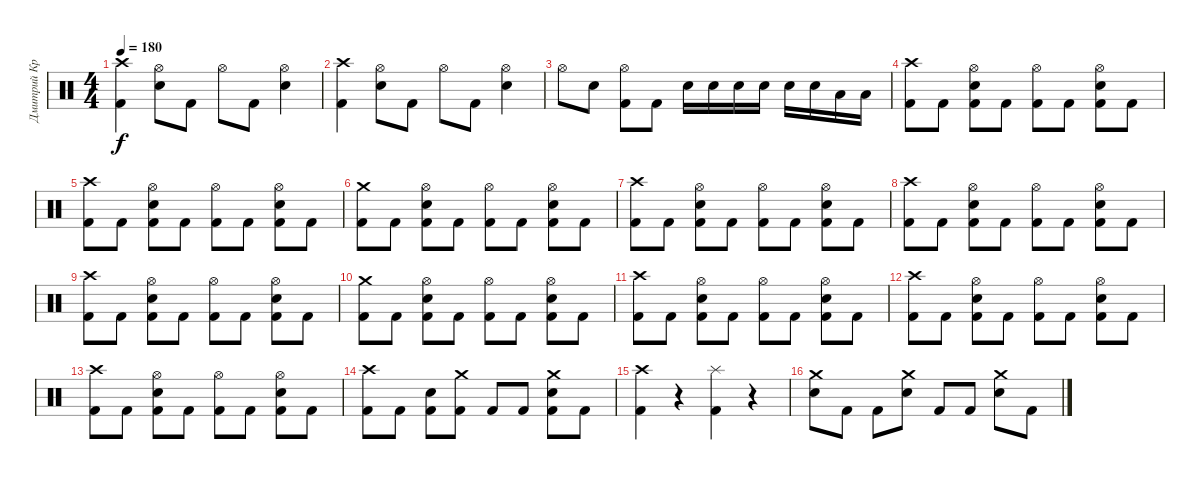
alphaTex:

\track ("Дмитрий Кривенков" "Дмитрий Кр") {instrument percussion}
\staff {score}
\articulation defaults
\ts (4 4)
\tempo 180
\clef neutral
\ks c
("Kick (hit) 2" "Crash high (hit)").4{dy f} ("Electric Snare (hit)" "Hi-Hat (open)").8 "Kick (hit) 2".8 "Hi-Hat (open)".8 "Kick (hit) 2".8 ("Electric Snare (hit)" "Hi-Hat (open)").4 |
("Kick (hit) 2" "Crash high (hit)").4 ("Electric Snare (hit)" "Hi-Hat (open)").8 "Kick (hit) 2".8 "Hi-Hat (open)".8 "Kick (hit) 2".8 ("Electric Snare (hit)" "Hi-Hat (open)").4 |
"Hi-Hat (open)".8 "Electric Snare (hit)".8 ("Hi-Hat (open)" "Kick (hit) 2").8 "Kick (hit) 2".8 "Snare (hit) 2".16 "Snare (hit) 2".16 "Snare (hit) 2".16 "Snare (hit) 2".16 "Snare (hit) 2".16 "Electric Snare (hit)".16 "Low Tom (hit)".16 "Low Tom (hit)".16 |
("Kick (hit) 2" "Crash high (hit)").8 "Kick (hit) 2".8 ("Hi-Hat (open)" "Electric Snare (hit)" "Kick (hit) 2").8 "Kick (hit) 2".8 ("Hi-Hat (open)" "Kick (hit) 2").8 "Kick (hit) 2".8 ("Kick (hit) 2" "Electric Snare (hit)" "Hi-Hat (open)").8 "Kick (hit) 2".8 |
("Kick (hit) 2" "Crash high (hit)").8 "Kick (hit) 2".8 ("Hi-Hat (open)" "Electric Snare (hit)" "Kick (hit) 2").8 "Kick (hit) 2".8 ("Hi-Hat (open)" "Kick (hit) 2").8 "Kick (hit) 2".8 ("Kick (hit) 2" "Electric Snare (hit)" "Hi-Hat (open)").8 "Kick (hit) 2".8 |
("Kick (hit) 2" "Crash medium (hit)").8 "Kick (hit) 2".8 ("Hi-Hat (open)" "Electric Snare (hit)" "Kick (hit) 2").8 "Kick (hit) 2".8 ("Hi-Hat (open)" "Kick (hit) 2").8 "Kick (hit) 2".8 ("Kick (hit) 2" "Electric Snare (hit)" "Hi-Hat (open)").8 "Kick (hit) 2".8 |
("Kick (hit) 2" "Crash high (hit)").8 "Kick (hit) 2".8 ("Hi-Hat (open)" "Electric Snare (hit)" "Kick (hit) 2").8 "Kick (hit) 2".8 ("Hi-Hat (open)" "Kick (hit) 2").8 "Kick (hit) 2".8 ("Kick (hit) 2" "Electric Snare (hit)" "Hi-Hat (open)").8 "Kick (hit) 2".8 |
("Kick (hit) 2" "Crash high (hit)").8 "Kick (hit) 2".8 ("Hi-Hat (open)" "Electric Snare (hit)" "Kick (hit) 2").8 "Kick (hit) 2".8 ("Hi-Hat (open)" "Kick (hit) 2").8 "Kick (hit) 2".8 ("Kick (hit) 2" "Electric Snare (hit)" "Hi-Hat (open)").8 "Kick (hit) 2".8 |
("Kick (hit) 2" "Crash high (hit)").8 "Kick (hit) 2".8 ("Hi-Hat (open)" "Electric Snare (hit)" "Kick (hit) 2").8 "Kick (hit) 2".8 ("Hi-Hat (open)" "Kick (hit) 2").8 "Kick (hit) 2".8 ("Kick (hit) 2" "Electric Snare (hit)" "Hi-Hat (open)").8 "Kick (hit) 2".8 |
("Kick (hit) 2" "Crash medium (hit)").8 "Kick (hit) 2".8 ("Hi-Hat (open)" "Electric Snare (hit)" "Kick (hit) 2").8 "Kick (hit) 2".8 ("Hi-Hat (open)" "Kick (hit) 2").8 "Kick (hit) 2".8 ("Kick (hit) 2" "Electric Snare (hit)" "Hi-Hat (open)").8 "Kick (hit) 2".8 |
("Kick (hit) 2" "Crash high (hit)").8 "Kick (hit) 2".8 ("Hi-Hat (open)" "Electric Snare (hit)" "Kick (hit) 2").8 "Kick (hit) 2".8 ("Hi-Hat (open)" "Kick (hit) 2").8 "Kick (hit) 2".8 ("Kick (hit) 2" "Electric Snare (hit)" "Hi-Hat (open)").8 "Kick (hit) 2".8 |
("Kick (hit) 2" "Crash high (hit)").8 "Kick (hit) 2".8 ("Hi-Hat (open)" "Electric Snare (hit)" "Kick (hit) 2").8 "Kick (hit) 2".8 ("Hi-Hat (open)" "Kick (hit) 2").8 "Kick (hit) 2".8 ("Kick (hit) 2" "Electric Snare (hit)" "Hi-Hat (open)").8 "Kick (hit) 2".8 |
("Kick (hit) 2" "Crash high (hit)").8 "Kick (hit) 2".8 ("Hi-Hat (open)" "Electric Snare (hit)" "Kick (hit) 2").8 "Kick (hit) 2".8 ("Hi-Hat (open)" "Kick (hit) 2").8 "Kick (hit) 2".8 ("Kick (hit) 2" "Electric Snare (hit)" "Hi-Hat (open)").8 "Kick (hit) 2".8 |
("Crash high (hit)" "Kick (hit) 2").8 "Kick (hit) 2".8 ("Kick (hit) 2" "Electric Snare (hit)").8 ("Crash medium (hit)" "Kick (hit) 2").8 "Kick (hit) 2".8 "Kick (hit) 2".8 ("Kick (hit) 2" "Electric Snare (hit)" "Crash medium (hit)").8 "Kick (hit) 2".8 |
("Crash high (hit)" "Kick (hit) 2").4 r.4 ("Splash (hit)" "Kick (hit) 2").4 r.4 |
("Crash medium (hit)" "Electric Snare (hit)").8 "Kick (hit) 2".8 "Kick (hit) 2".8 ("Electric Snare (hit)" "Crash medium (hit)").8 "Kick (hit) 2".8 "Kick (hit) 2".8 ("Crash medium (hit)" "Electric Snare (hit)").8 "Kick (hit) 2".8
